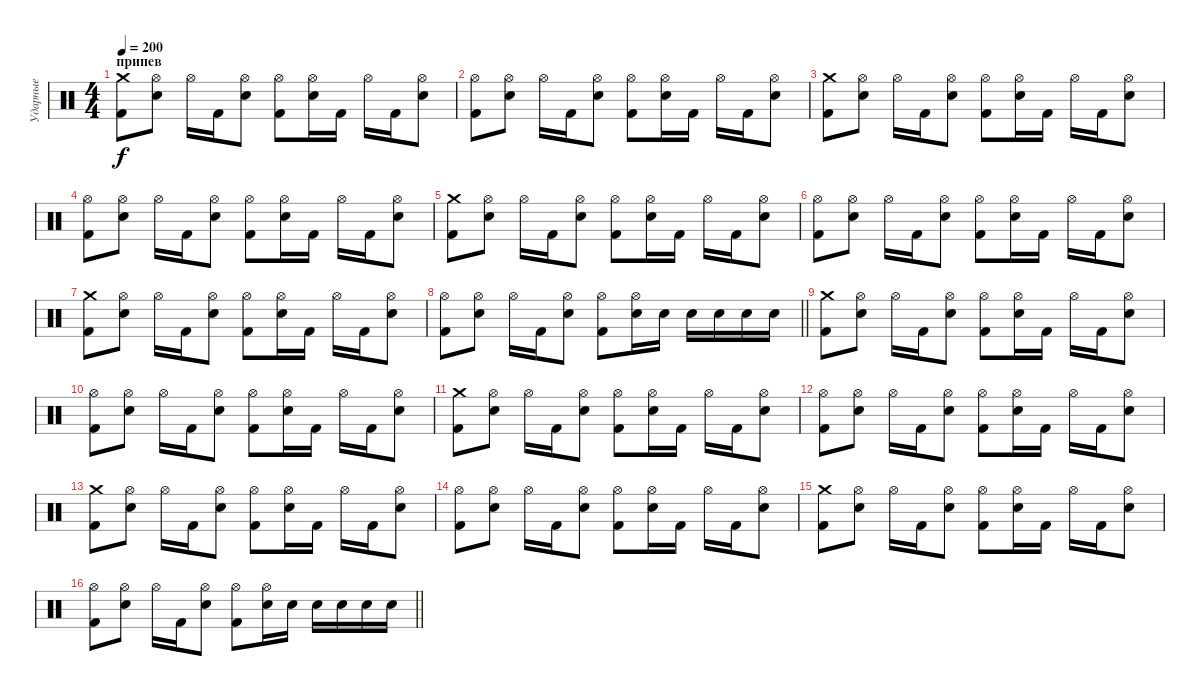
\track ("Ударные" "Ударные") {instrument percussion}
\staff {score}
\articulation defaults
\ts (4 4)
\section ("" "припев")
\tempo 200
\clef neutral
\ks c
("Kick (hit) 2" "Crash medium (hit)").8{dy f} ("Electric Snare (hit)" "Hi-Hat (open)").8 "Hi-Hat (open)".16 "Kick (hit) 2".16 ("Electric Snare (hit)" "Hi-Hat (open)").8 ("Kick (hit) 2" "Hi-Hat (open)").8 ("Electric Snare (hit)" "Hi-Hat (open)").16 "Kick (hit) 2".16 "Hi-Hat (open)".16 "Kick (hit) 2".16 ("Electric Snare (hit)" "Hi-Hat (open)").8 |
("Kick (hit) 2" "Hi-Hat (open)").8 ("Electric Snare (hit)" "Hi-Hat (open)").8 "Hi-Hat (open)".16 "Kick (hit) 2".16 ("Electric Snare (hit)" "Hi-Hat (open)").8 ("Kick (hit) 2" "Hi-Hat (open)").8 ("Electric Snare (hit)" "Hi-Hat (open)").16 "Kick (hit) 2".16 "Hi-Hat (open)".16 "Kick (hit) 2".16 ("Electric Snare (hit)" "Hi-Hat (open)").8 |
("Kick (hit) 2" "Crash medium (hit)").8 ("Electric Snare (hit)" "Hi-Hat (open)").8 "Hi-Hat (open)".16 "Kick (hit) 2".16 ("Electric Snare (hit)" "Hi-Hat (open)").8 ("Kick (hit) 2" "Hi-Hat (open)").8 ("Electric Snare (hit)" "Hi-Hat (open)").16 "Kick (hit) 2".16 "Hi-Hat (open)".16 "Kick (hit) 2".16 ("Electric Snare (hit)" "Hi-Hat (open)").8 |
("Kick (hit) 2" "Hi-Hat (open)").8 ("Electric Snare (hit)" "Hi-Hat (open)").8 "Hi-Hat (open)".16 "Kick (hit) 2".16 ("Electric Snare (hit)" "Hi-Hat (open)").8 ("Kick (hit) 2" "Hi-Hat (open)").8 ("Electric Snare (hit)" "Hi-Hat (open)").16 "Kick (hit) 2".16 "Hi-Hat (open)".16 "Kick (hit) 2".16 ("Electric Snare (hit)" "Hi-Hat (open)").8 |
("Kick (hit) 2" "Crash medium (hit)").8 ("Electric Snare (hit)" "Hi-Hat (open)").8 "Hi-Hat (open)".16 "Kick (hit) 2".16 ("Electric Snare (hit)" "Hi-Hat (open)").8 ("Kick (hit) 2" "Hi-Hat (open)").8 ("Electric Snare (hit)" "Hi-Hat (open)").16 "Kick (hit) 2".16 "Hi-Hat (open)".16 "Kick (hit) 2".16 ("Electric Snare (hit)" "Hi-Hat (open)").8 |
("Kick (hit) 2" "Hi-Hat (open)").8 ("Electric Snare (hit)" "Hi-Hat (open)").8 "Hi-Hat (open)".16 "Kick (hit) 2".16 ("Electric Snare (hit)" "Hi-Hat (open)").8 ("Kick (hit) 2" "Hi-Hat (open)").8 ("Electric Snare (hit)" "Hi-Hat (open)").16 "Kick (hit) 2".16 "Hi-Hat (open)".16 "Kick (hit) 2".16 ("Electric Snare (hit)" "Hi-Hat (open)").8 |
("Kick (hit) 2" "Crash medium (hit)").8 ("Electric Snare (hit)" "Hi-Hat (open)").8 "Hi-Hat (open)".16 "Kick (hit) 2".16 ("Electric Snare (hit)" "Hi-Hat (open)").8 ("Kick (hit) 2" "Hi-Hat (open)").8 ("Electric Snare (hit)" "Hi-Hat (open)").16 "Kick (hit) 2".16 "Hi-Hat (open)".16 "Kick (hit) 2".16 ("Electric Snare (hit)" "Hi-Hat (open)").8 |
\barLineRight lightlight
("Kick (hit) 2" "Hi-Hat (open)").8 ("Electric Snare (hit)" "Hi-Hat (open)").8 "Hi-Hat (open)".16 "Kick (hit) 2".16 ("Electric Snare (hit)" "Hi-Hat (open)").8 ("Kick (hit) 2" "Hi-Hat (open)").8 ("Electric Snare (hit)" "Hi-Hat (open)").16 "Electric Snare (hit)".16 "Electric Snare (hit)".16 "Electric Snare (hit)".16 "Electric Snare (hit)".16 "Electric Snare (hit)".16 |
("Kick (hit) 2" "Crash medium (hit)").8 ("Electric Snare (hit)" "Hi-Hat (open)").8 "Hi-Hat (open)".16 "Kick (hit) 2".16 ("Electric Snare (hit)" "Hi-Hat (open)").8 ("Kick (hit) 2" "Hi-Hat (open)").8 ("Electric Snare (hit)" "Hi-Hat (open)").16 "Kick (hit) 2".16 "Hi-Hat (open)".16 "Kick (hit) 2".16 ("Electric Snare (hit)" "Hi-Hat (open)").8 |
("Kick (hit) 2" "Hi-Hat (open)").8 ("Electric Snare (hit)" "Hi-Hat (open)").8 "Hi-Hat (open)".16 "Kick (hit) 2".16 ("Electric Snare (hit)" "Hi-Hat (open)").8 ("Kick (hit) 2" "Hi-Hat (open)").8 ("Electric Snare (hit)" "Hi-Hat (open)").16 "Kick (hit) 2".16 "Hi-Hat (open)".16 "Kick (hit) 2".16 ("Electric Snare (hit)" "Hi-Hat (open)").8 |
("Kick (hit) 2" "Crash medium (hit)").8 ("Electric Snare (hit)" "Hi-Hat (open)").8 "Hi-Hat (open)".16 "Kick (hit) 2".16 ("Electric Snare (hit)" "Hi-Hat (open)").8 ("Kick (hit) 2" "Hi-Hat (open)").8 ("Electric Snare (hit)" "Hi-Hat (open)").16 "Kick (hit) 2".16 "Hi-Hat (open)".16 "Kick (hit) 2".16 ("Electric Snare (hit)" "Hi-Hat (open)").8 |
("Kick (hit) 2" "Hi-Hat (open)").8 ("Electric Snare (hit)" "Hi-Hat (open)").8 "Hi-Hat (open)".16 "Kick (hit) 2".16 ("Electric Snare (hit)" "Hi-Hat (open)").8 ("Kick (hit) 2" "Hi-Hat (open)").8 ("Electric Snare (hit)" "Hi-Hat (open)").16 "Kick (hit) 2".16 "Hi-Hat (open)".16 "Kick (hit) 2".16 ("Electric Snare (hit)" "Hi-Hat (open)").8 |
("Kick (hit) 2" "Crash medium (hit)").8 ("Electric Snare (hit)" "Hi-Hat (open)").8 "Hi-Hat (open)".16 "Kick (hit) 2".16 ("Electric Snare (hit)" "Hi-Hat (open)").8 ("Kick (hit) 2" "Hi-Hat (open)").8 ("Electric Snare (hit)" "Hi-Hat (open)").16 "Kick (hit) 2".16 "Hi-Hat (open)".16 "Kick (hit) 2".16 ("Electric Snare (hit)" "Hi-Hat (open)").8 |
("Kick (hit) 2" "Hi-Hat (open)").8 ("Electric Snare (hit)" "Hi-Hat (open)").8 "Hi-Hat (open)".16 "Kick (hit) 2".16 ("Electric Snare (hit)" "Hi-Hat (open)").8 ("Kick (hit) 2" "Hi-Hat (open)").8 ("Electric Snare (hit)" "Hi-Hat (open)").16 "Kick (hit) 2".16 "Hi-Hat (open)".16 "Kick (hit) 2".16 ("Electric Snare (hit)" "Hi-Hat (open)").8 |
("Kick (hit) 2" "Crash medium (hit)").8 ("Electric Snare (hit)" "Hi-Hat (open)").8 "Hi-Hat (open)".16 "Kick (hit) 2".16 ("Electric Snare (hit)" "Hi-Hat (open)").8 ("Kick (hit) 2" "Hi-Hat (open)").8 ("Electric Snare (hit)" "Hi-Hat (open)").16 "Kick (hit) 2".16 "Hi-Hat (open)".16 "Kick (hit) 2".16 ("Electric Snare (hit)" "Hi-Hat (open)").8 |
\barLineRight lightlight
("Kick (hit) 2" "Hi-Hat (open)").8 ("Electric Snare (hit)" "Hi-Hat (open)").8 "Hi-Hat (open)".16 "Kick (hit) 2".16 ("Electric Snare (hit)" "Hi-Hat (open)").8 ("Kick (hit) 2" "Hi-Hat (open)").8 ("Electric Snare (hit)" "Hi-Hat (open)").16 "Electric Snare (hit)".16 "Electric Snare (hit)".16 "Electric Snare (hit)".16 "Electric Snare (hit)".16 "Electric Snare (hit)".16
